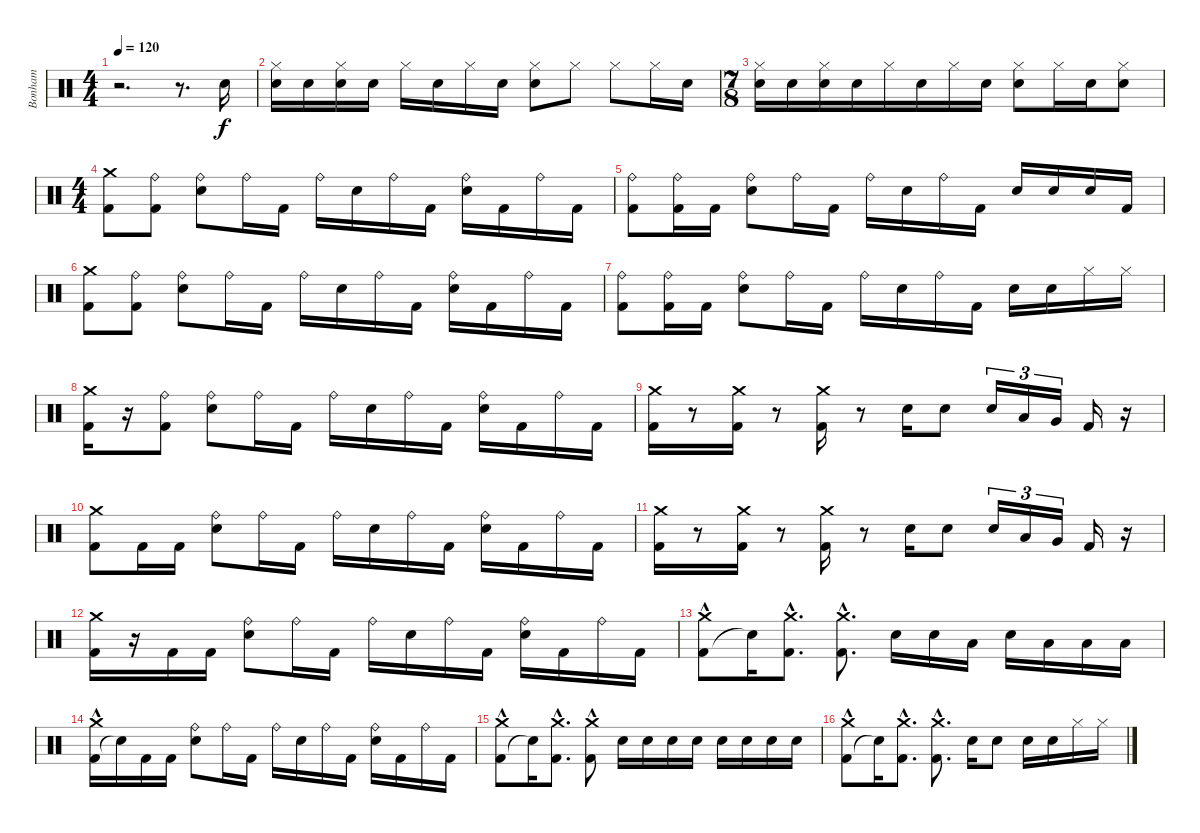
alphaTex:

\track ("Bonham" "Bonham") {instrument percussion}
\staff {score}
\articulation defaults
\ts (4 4)
\tempo 120
\clef neutral
\ks c
r.2{d dy f} r.8{d} "Electric Snare (hit)".16 |
("Electric Snare (hit)" "Hi-Hat (closed)").16 "Electric Snare (hit)".16 ("Electric Snare (hit)" "Hi-Hat (closed)").16 "Electric Snare (hit)".16 "Hi-Hat (closed)".16 "Electric Snare (hit)".16 "Hi-Hat (closed)".16 "Electric Snare (hit)".16 ("Electric Snare (hit)" "Hi-Hat (closed)").8 "Hi-Hat (closed)".8 "Hi-Hat (closed)".8 "Hi-Hat (closed)".16 "Electric Snare (hit)".16 |
\ts (7 8)
("Electric Snare (hit)" "Hi-Hat (closed)").16 "Electric Snare (hit)".16 ("Electric Snare (hit)" "Hi-Hat (closed)").16 "Electric Snare (hit)".16 "Hi-Hat (closed)".16 "Electric Snare (hit)".16 "Hi-Hat (closed)".16 "Electric Snare (hit)".16 ("Electric Snare (hit)" "Hi-Hat (closed)").8 "Hi-Hat (closed)".16 "Electric Snare (hit)".16 ("Electric Snare (hit)" "Hi-Hat (closed)").8 |
\ts (4 4)
("Kick (hit) 2" "Crash medium (hit)").8 ("Ride (bell)" "Kick (hit) 2").8 ("Ride (bell)" "Electric Snare (hit)").8 "Ride (bell)".16 "Kick (hit) 2".16 "Ride (bell)".16 "Electric Snare (hit)".16 "Ride (bell)".16 "Kick (hit) 2".16 ("Ride (bell)" "Electric Snare (hit)").16 "Kick (hit) 2".16 "Ride (bell)".16 "Kick (hit) 2".16 |
("Ride (bell)" "Kick (hit) 2").8 ("Ride (bell)" "Kick (hit) 2").16 "Kick (hit) 2".16 ("Ride (bell)" "Electric Snare (hit)").8 "Ride (bell)".16 "Kick (hit) 2".16 "Ride (bell)".16 "Electric Snare (hit)".16 "Ride (bell)".16 "Kick (hit) 2".16 "Electric Snare (hit)".16 "Electric Snare (hit)".16 "Electric Snare (hit)".16 "Kick (hit) 2".16 |
("Kick (hit) 2" "Crash medium (hit)").8 ("Ride (bell)" "Kick (hit) 2").8 ("Ride (bell)" "Electric Snare (hit)").8 "Ride (bell)".16 "Kick (hit) 2".16 "Ride (bell)".16 "Electric Snare (hit)".16 "Ride (bell)".16 "Kick (hit) 2".16 ("Ride (bell)" "Electric Snare (hit)").16 "Kick (hit) 2".16 "Ride (bell)".16 "Kick (hit) 2".16 |
("Ride (bell)" "Kick (hit) 2").8 ("Ride (bell)" "Kick (hit) 2").16 "Kick (hit) 2".16 ("Ride (bell)" "Electric Snare (hit)").8 "Ride (bell)".16 "Kick (hit) 2".16 "Ride (bell)".16 "Electric Snare (hit)".16 "Ride (bell)".16 "Kick (hit) 2".16 "Electric Snare (hit)".16 "Electric Snare (hit)".16 "Hi-Hat (closed)".16 "Hi-Hat (closed)".16 |
("Kick (hit) 2" "Crash medium (hit)").16 r.16 ("Ride (bell)" "Kick (hit) 2").8 ("Ride (bell)" "Electric Snare (hit)").8 "Ride (bell)".16 "Kick (hit) 2".16 "Ride (bell)".16 "Electric Snare (hit)".16 "Ride (bell)".16 "Kick (hit) 2".16 ("Ride (bell)" "Electric Snare (hit)").16 "Kick (hit) 2".16 "Ride (bell)".16 "Kick (hit) 2".16 |
("Kick (hit) 2" "Crash medium (hit)").16 r.8 ("Kick (hit) 2" "Crash medium (hit)").16 r.8 ("Kick (hit) 2" "Crash medium (hit)").16 r.8 "Electric Snare (hit)".16 "Electric Snare (hit)".8 "Electric Snare (hit)".16{tu (3 2)} "Low Tom (hit)".16{tu (3 2)} "Very Low Tom (hit)".16{tu (3 2)} "Kick (hit) 2".16 r.16 |
("Kick (hit) 2" "Crash medium (hit)").8 "Kick (hit) 2".16 "Kick (hit) 2".16 ("Ride (bell)" "Electric Snare (hit)").8 "Ride (bell)".16 "Kick (hit) 2".16 "Ride (bell)".16 "Electric Snare (hit)".16 "Ride (bell)".16 "Kick (hit) 2".16 ("Ride (bell)" "Electric Snare (hit)").16 "Kick (hit) 2".16 "Ride (bell)".16 "Kick (hit) 2".16 |
("Kick (hit) 2" "Crash medium (hit)").16 r.8 ("Kick (hit) 2" "Crash medium (hit)").16 r.8 ("Kick (hit) 2" "Crash medium (hit)").16 r.8 "Electric Snare (hit)".16 "Electric Snare (hit)".8 "Electric Snare (hit)".16{tu (3 2)} "Low Tom (hit)".16{tu (3 2)} "Very Low Tom (hit)".16{tu (3 2)} "Kick (hit) 2".16 r.16 |
("Kick (hit) 2" "Crash medium (hit)").16 r.16 "Kick (hit) 2".16 "Kick (hit) 2".16 ("Ride (bell)" "Electric Snare (hit)").8 "Ride (bell)".16 "Kick (hit) 2".16 "Ride (bell)".16 "Electric Snare (hit)".16 "Ride (bell)".16 "Kick (hit) 2".16 ("Ride (bell)" "Electric Snare (hit)").16 "Kick (hit) 2".16 "Ride (bell)".16 "Kick (hit) 2".16 |
("Kick (hit) 2" "Crash medium (hit)"{hac}).8 "Snare (hit)"{t}.16 ("Kick (hit) 2"{hac} "Crash medium (hit)").8{d} ("Kick (hit) 2"{hac} "Crash medium (hit)").8{d} "Electric Snare (hit)".16 "Electric Snare (hit)".16 "Low Tom (hit)".16 "Electric Snare (hit)".16 "Low Tom (hit)".16 "Low Tom (hit)".16 "Low Tom (hit)".16 |
("Kick (hit) 2" "Crash medium (hit)"{hac}).16 "Snare (hit)"{t}.16 "Kick (hit) 2".16 "Kick (hit) 2".16 ("Ride (bell)" "Electric Snare (hit)").8 "Ride (bell)".16 "Kick (hit) 2".16 "Ride (bell)".16 "Electric Snare (hit)".16 "Ride (bell)".16 "Kick (hit) 2".16 ("Ride (bell)" "Electric Snare (hit)").16 "Kick (hit) 2".16 "Ride (bell)".16 "Kick (hit) 2".16 |
("Kick (hit) 2" "Crash medium (hit)"{hac}).8 "Snare (hit)"{t}.16 ("Kick (hit) 2"{hac} "Crash medium (hit)").8{d} ("Kick (hit) 2"{hac} "Crash medium (hit)").8 "Electric Snare (hit)".16 "Electric Snare (hit)".16 "Electric Snare (hit)".16 "Electric Snare (hit)".16 "Electric Snare (hit)".16 "Electric Snare (hit)".16 "Electric Snare (hit)".16 "Electric Snare (hit)".16 |
("Kick (hit) 2" "Crash medium (hit)"{hac}).8 "Snare (hit)"{t}.16 ("Kick (hit) 2"{hac} "Crash medium (hit)").8{d} ("Kick (hit) 2"{hac} "Crash medium (hit)").8{d} "Electric Snare (hit)".16 "Electric Snare (hit)".8 "Electric Snare (hit)".16 "Electric Snare (hit)".16 "Hi-Hat (closed)".16 "Hi-Hat (closed)".16
